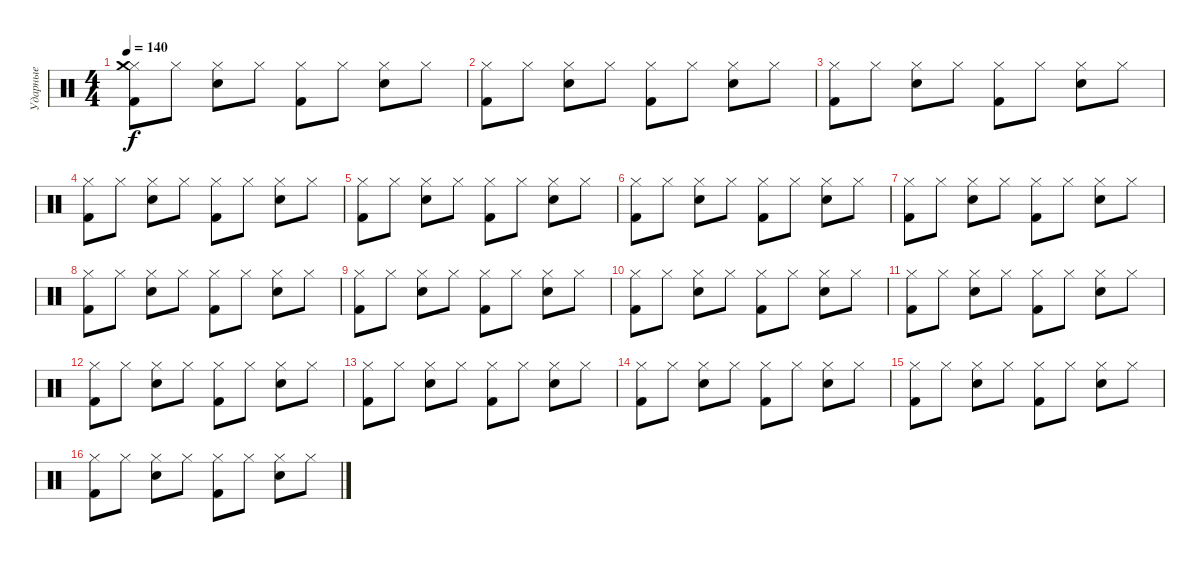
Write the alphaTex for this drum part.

\track ("Ударные" "Ударные") {instrument percussion}
\staff {score}
\articulation defaults
\ts (4 4)
\tempo 140
\clef neutral
\ks c
("Hi-Hat (closed)" "Kick (hit) 2" "Crash medium (hit)").8{dy f} "Hi-Hat (closed)".8 ("Hi-Hat (closed)" "Snare (hit) 2").8 "Hi-Hat (closed)".8 ("Hi-Hat (closed)" "Kick (hit) 2").8 "Hi-Hat (closed)".8 ("Hi-Hat (closed)" "Snare (hit) 2").8 "Hi-Hat (closed)".8 |
("Hi-Hat (closed)" "Kick (hit) 2").8 "Hi-Hat (closed)".8 ("Hi-Hat (closed)" "Snare (hit) 2").8 "Hi-Hat (closed)".8 ("Hi-Hat (closed)" "Kick (hit) 2").8 "Hi-Hat (closed)".8 ("Hi-Hat (closed)" "Snare (hit) 2").8 "Hi-Hat (closed)".8 |
("Hi-Hat (closed)" "Kick (hit) 2").8 "Hi-Hat (closed)".8 ("Hi-Hat (closed)" "Snare (hit) 2").8 "Hi-Hat (closed)".8 ("Hi-Hat (closed)" "Kick (hit) 2").8 "Hi-Hat (closed)".8 ("Hi-Hat (closed)" "Snare (hit) 2").8 "Hi-Hat (closed)".8 |
("Hi-Hat (closed)" "Kick (hit) 2").8 "Hi-Hat (closed)".8 ("Hi-Hat (closed)" "Snare (hit) 2").8 "Hi-Hat (closed)".8 ("Hi-Hat (closed)" "Kick (hit) 2").8 "Hi-Hat (closed)".8 ("Hi-Hat (closed)" "Snare (hit) 2").8 "Hi-Hat (closed)".8 |
("Hi-Hat (closed)" "Kick (hit) 2").8 "Hi-Hat (closed)".8 ("Hi-Hat (closed)" "Snare (hit) 2").8 "Hi-Hat (closed)".8 ("Hi-Hat (closed)" "Kick (hit) 2").8 "Hi-Hat (closed)".8 ("Hi-Hat (closed)" "Snare (hit) 2").8 "Hi-Hat (closed)".8 |
("Hi-Hat (closed)" "Kick (hit) 2").8 "Hi-Hat (closed)".8 ("Hi-Hat (closed)" "Snare (hit) 2").8 "Hi-Hat (closed)".8 ("Hi-Hat (closed)" "Kick (hit) 2").8 "Hi-Hat (closed)".8 ("Hi-Hat (closed)" "Snare (hit) 2").8 "Hi-Hat (closed)".8 |
("Hi-Hat (closed)" "Kick (hit) 2").8 "Hi-Hat (closed)".8 ("Hi-Hat (closed)" "Snare (hit) 2").8 "Hi-Hat (closed)".8 ("Hi-Hat (closed)" "Kick (hit) 2").8 "Hi-Hat (closed)".8 ("Hi-Hat (closed)" "Snare (hit) 2").8 "Hi-Hat (closed)".8 |
("Hi-Hat (closed)" "Kick (hit) 2").8 "Hi-Hat (closed)".8 ("Hi-Hat (closed)" "Snare (hit) 2").8 "Hi-Hat (closed)".8 ("Hi-Hat (closed)" "Kick (hit) 2").8 "Hi-Hat (closed)".8 ("Hi-Hat (closed)" "Snare (hit) 2").8 "Hi-Hat (closed)".8 |
("Hi-Hat (closed)" "Kick (hit) 2").8 "Hi-Hat (closed)".8 ("Hi-Hat (closed)" "Snare (hit) 2").8 "Hi-Hat (closed)".8 ("Hi-Hat (closed)" "Kick (hit) 2").8 "Hi-Hat (closed)".8 ("Hi-Hat (closed)" "Snare (hit) 2").8 "Hi-Hat (closed)".8 |
("Hi-Hat (closed)" "Kick (hit) 2").8 "Hi-Hat (closed)".8 ("Hi-Hat (closed)" "Snare (hit) 2").8 "Hi-Hat (closed)".8 ("Hi-Hat (closed)" "Kick (hit) 2").8 "Hi-Hat (closed)".8 ("Hi-Hat (closed)" "Snare (hit) 2").8 "Hi-Hat (closed)".8 |
("Hi-Hat (closed)" "Kick (hit) 2").8 "Hi-Hat (closed)".8 ("Hi-Hat (closed)" "Snare (hit) 2").8 "Hi-Hat (closed)".8 ("Hi-Hat (closed)" "Kick (hit) 2").8 "Hi-Hat (closed)".8 ("Hi-Hat (closed)" "Snare (hit) 2").8 "Hi-Hat (closed)".8 |
("Hi-Hat (closed)" "Kick (hit) 2").8 "Hi-Hat (closed)".8 ("Hi-Hat (closed)" "Snare (hit) 2").8 "Hi-Hat (closed)".8 ("Hi-Hat (closed)" "Kick (hit) 2").8 "Hi-Hat (closed)".8 ("Hi-Hat (closed)" "Snare (hit) 2").8 "Hi-Hat (closed)".8 |
("Hi-Hat (closed)" "Kick (hit) 2").8 "Hi-Hat (closed)".8 ("Hi-Hat (closed)" "Snare (hit) 2").8 "Hi-Hat (closed)".8 ("Hi-Hat (closed)" "Kick (hit) 2").8 "Hi-Hat (closed)".8 ("Hi-Hat (closed)" "Snare (hit) 2").8 "Hi-Hat (closed)".8 |
("Hi-Hat (closed)" "Kick (hit) 2").8 "Hi-Hat (closed)".8 ("Hi-Hat (closed)" "Snare (hit) 2").8 "Hi-Hat (closed)".8 ("Hi-Hat (closed)" "Kick (hit) 2").8 "Hi-Hat (closed)".8 ("Hi-Hat (closed)" "Snare (hit) 2").8 "Hi-Hat (closed)".8 |
("Hi-Hat (closed)" "Kick (hit) 2").8 "Hi-Hat (closed)".8 ("Hi-Hat (closed)" "Snare (hit) 2").8 "Hi-Hat (closed)".8 ("Hi-Hat (closed)" "Kick (hit) 2").8 "Hi-Hat (closed)".8 ("Hi-Hat (closed)" "Snare (hit) 2").8 "Hi-Hat (closed)".8 |
("Hi-Hat (closed)" "Kick (hit) 2").8 "Hi-Hat (closed)".8 ("Hi-Hat (closed)" "Snare (hit) 2").8 "Hi-Hat (closed)".8 ("Hi-Hat (closed)" "Kick (hit) 2").8 "Hi-Hat (closed)".8 ("Hi-Hat (closed)" "Snare (hit) 2").8 "Hi-Hat (closed)".8
